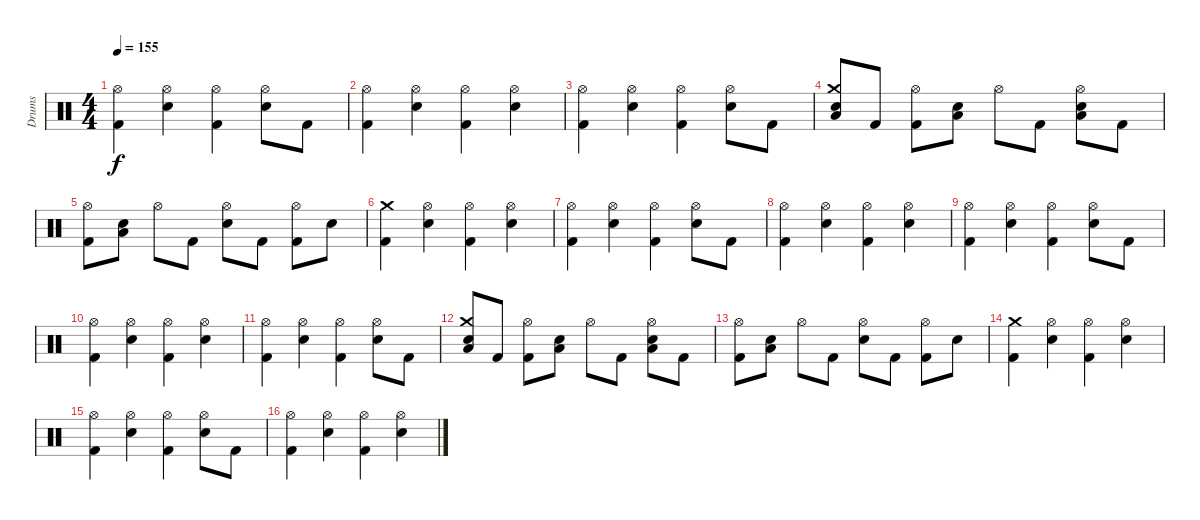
\track ("Drums" "Drums") {instrument percussion}
\staff {score}
\articulation defaults
\ts (4 4)
\tempo 155
\clef neutral
\ks c
("Hi-Hat (open)" "Kick (hit) 2").4{dy f} ("Hi-Hat (open)" "Snare (hit) 2").4 ("Hi-Hat (open)" "Kick (hit) 2").4 ("Hi-Hat (open)" "Snare (hit) 2").8 "Kick (hit) 2".8 |
("Hi-Hat (open)" "Kick (hit) 2").4 ("Hi-Hat (open)" "Snare (hit) 2").4 ("Hi-Hat (open)" "Kick (hit) 2").4 ("Hi-Hat (open)" "Snare (hit) 2").4 |
("Hi-Hat (open)" "Kick (hit) 2").4 ("Hi-Hat (open)" "Snare (hit) 2").4 ("Hi-Hat (open)" "Kick (hit) 2").4 ("Hi-Hat (open)" "Snare (hit) 2").8 "Kick (hit) 2".8 |
("Crash medium (hit)" "Snare (hit) 2" "Low Floor Tom (hit)").8 "Kick (hit) 2".8 ("Hi-Hat (open)" "Kick (hit) 2").8 ("Snare (hit) 2" "Low Floor Tom (hit)").8 "Hi-Hat (open)".8 "Kick (hit) 2".8 ("Hi-Hat (open)" "Snare (hit) 2" "Low Floor Tom (hit)").8 "Kick (hit) 2".8 |
("Hi-Hat (open)" "Kick (hit) 2").8 ("Snare (hit) 2" "Low Floor Tom (hit)").8 "Hi-Hat (open)".8 "Kick (hit) 2".8 ("Hi-Hat (open)" "Snare (hit) 2").8 "Kick (hit) 2".8 ("Hi-Hat (open)" "Kick (hit) 2").8 "Snare (hit) 2".8 |
("Crash medium (hit)" "Kick (hit) 2").4 ("Hi-Hat (open)" "Snare (hit) 2").4 ("Hi-Hat (open)" "Kick (hit) 2").4 ("Hi-Hat (open)" "Snare (hit) 2").4 |
("Hi-Hat (open)" "Kick (hit) 2").4 ("Hi-Hat (open)" "Snare (hit) 2").4 ("Hi-Hat (open)" "Kick (hit) 2").4 ("Hi-Hat (open)" "Snare (hit) 2").8 "Kick (hit) 2".8 |
("Hi-Hat (open)" "Kick (hit) 2").4 ("Hi-Hat (open)" "Snare (hit) 2").4 ("Hi-Hat (open)" "Kick (hit) 2").4 ("Hi-Hat (open)" "Snare (hit) 2").4 |
("Hi-Hat (open)" "Kick (hit) 2").4 ("Hi-Hat (open)" "Snare (hit) 2").4 ("Hi-Hat (open)" "Kick (hit) 2").4 ("Hi-Hat (open)" "Snare (hit) 2").8 "Kick (hit) 2".8 |
("Hi-Hat (open)" "Kick (hit) 2").4 ("Hi-Hat (open)" "Snare (hit) 2").4 ("Hi-Hat (open)" "Kick (hit) 2").4 ("Hi-Hat (open)" "Snare (hit) 2").4 |
("Hi-Hat (open)" "Kick (hit) 2").4 ("Hi-Hat (open)" "Snare (hit) 2").4 ("Hi-Hat (open)" "Kick (hit) 2").4 ("Hi-Hat (open)" "Snare (hit) 2").8 "Kick (hit) 2".8 |
("Crash medium (hit)" "Snare (hit) 2" "Low Floor Tom (hit)").8 "Kick (hit) 2".8 ("Hi-Hat (open)" "Kick (hit) 2").8 ("Snare (hit) 2" "Low Floor Tom (hit)").8 "Hi-Hat (open)".8 "Kick (hit) 2".8 ("Hi-Hat (open)" "Snare (hit) 2" "Low Floor Tom (hit)").8 "Kick (hit) 2".8 |
("Hi-Hat (open)" "Kick (hit) 2").8 ("Snare (hit) 2" "Low Floor Tom (hit)").8 "Hi-Hat (open)".8 "Kick (hit) 2".8 ("Hi-Hat (open)" "Snare (hit) 2").8 "Kick (hit) 2".8 ("Hi-Hat (open)" "Kick (hit) 2").8 "Snare (hit) 2".8 |
("Crash medium (hit)" "Kick (hit) 2").4 ("Hi-Hat (open)" "Snare (hit) 2").4 ("Hi-Hat (open)" "Kick (hit) 2").4 ("Hi-Hat (open)" "Snare (hit) 2").4 |
("Hi-Hat (open)" "Kick (hit) 2").4 ("Hi-Hat (open)" "Snare (hit) 2").4 ("Hi-Hat (open)" "Kick (hit) 2").4 ("Hi-Hat (open)" "Snare (hit) 2").8 "Kick (hit) 2".8 |
("Hi-Hat (open)" "Kick (hit) 2").4 ("Hi-Hat (open)" "Snare (hit) 2").4 ("Hi-Hat (open)" "Kick (hit) 2").4 ("Hi-Hat (open)" "Snare (hit) 2").4
